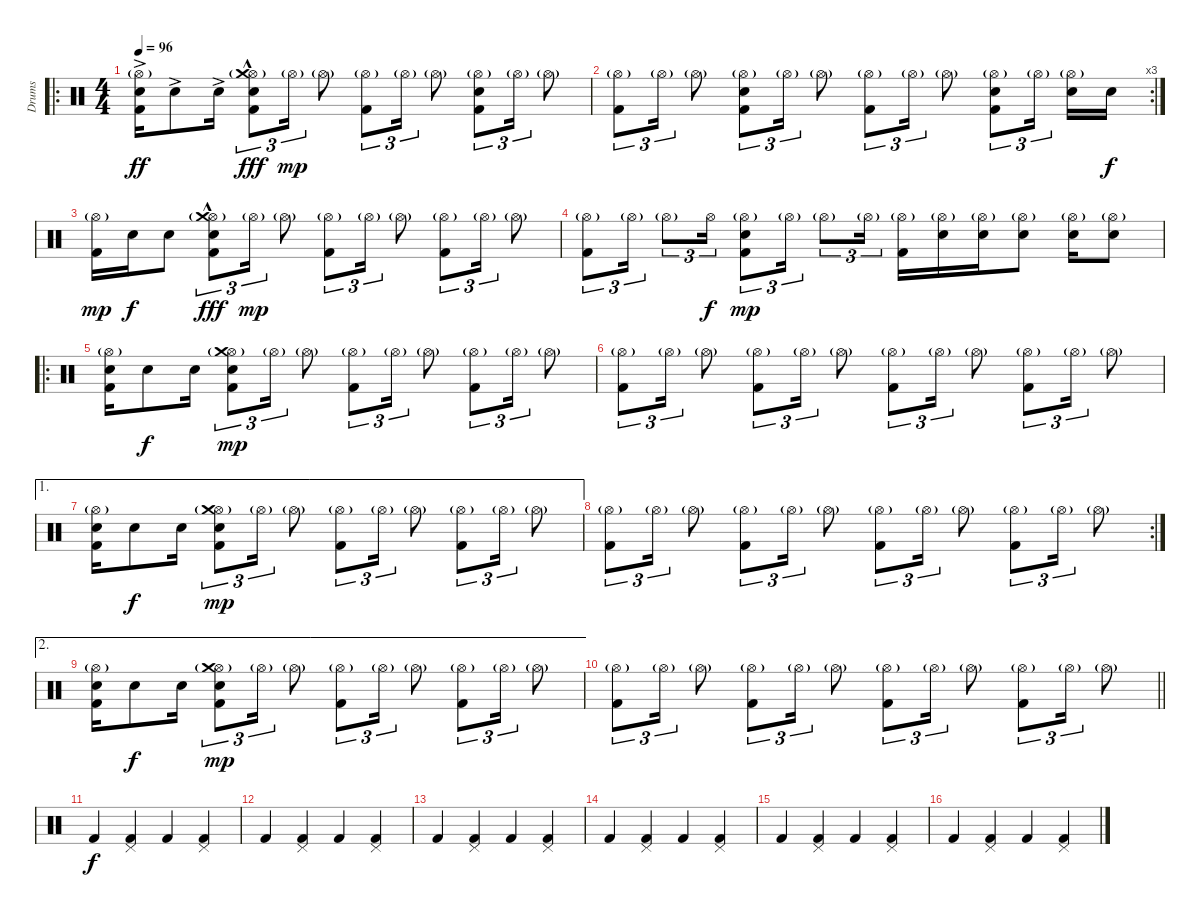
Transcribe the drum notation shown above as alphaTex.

\track ("Drums" "Drums") {instrument percussion}
\staff {score}
\articulation defaults
\ro
\ts (4 4)
\tempo 96
\clef neutral
\ks c
("Hi-Hat (open)"{g} "Electric Snare (hit)"{ac} "Kick (hit) 2").16{dy ff} "Electric Snare (hit)"{ac}.8 "Electric Snare (hit)"{ac}.16 ("Hi-Hat (open)"{g} "Crash medium (hit)"{hac} "Electric Snare (hit)"{hac} "Kick (hit) 2").8{tu (3 2) dy fff} "Hi-Hat (open)"{g}.16{tu (3 2) dy mp} "Hi-Hat (open)"{g}.8 ("Hi-Hat (open)"{g} "Kick (hit) 2").8{tu (3 2)} "Hi-Hat (open)"{g}.16{tu (3 2)} "Hi-Hat (open)"{g}.8 ("Hi-Hat (open)"{g} "Electric Snare (hit)" "Kick (hit) 2").8{tu (3 2)} "Hi-Hat (open)"{g}.16{tu (3 2)} "Hi-Hat (open)"{g}.8 |
\rc 3
("Hi-Hat (open)"{g} "Kick (hit) 2").8{tu (3 2)} "Hi-Hat (open)"{g}.16{tu (3 2)} "Hi-Hat (open)"{g}.8 ("Hi-Hat (open)"{g} "Electric Snare (hit)" "Kick (hit) 2").8{tu (3 2)} "Hi-Hat (open)"{g}.16{tu (3 2)} "Hi-Hat (open)"{g}.8 ("Hi-Hat (open)"{g} "Kick (hit) 2").8{tu (3 2)} "Hi-Hat (open)"{g}.16{tu (3 2)} "Hi-Hat (open)"{g}.8 ("Hi-Hat (open)"{g} "Electric Snare (hit)" "Kick (hit) 2").8{tu (3 2)} "Hi-Hat (open)"{g}.16{tu (3 2) beam splitsecondary} ("Hi-Hat (open)"{g} "Electric Snare (hit)").16 "Electric Snare (hit)".16{dy f} |
("Hi-Hat (open)"{g} "Kick (hit) 2").16{dy mp} "Electric Snare (hit)".16{dy f} "Electric Snare (hit)".8 ("Hi-Hat (open)"{g} "Crash medium (hit)"{hac} "Electric Snare (hit)"{hac} "Kick (hit) 2").8{tu (3 2) dy fff} "Hi-Hat (open)"{g}.16{tu (3 2) dy mp} "Hi-Hat (open)"{g}.8 ("Hi-Hat (open)"{g} "Kick (hit) 2").8{tu (3 2)} "Hi-Hat (open)"{g}.16{tu (3 2)} "Hi-Hat (open)"{g}.8 ("Hi-Hat (open)"{g} "Kick (hit) 2").8{tu (3 2)} "Hi-Hat (open)"{g}.16{tu (3 2)} "Hi-Hat (open)"{g}.8 |
("Hi-Hat (open)"{g} "Kick (hit) 2").8{tu (3 2)} "Hi-Hat (open)"{g}.16{tu (3 2)} "Hi-Hat (open)"{g}.8{tu (3 2)} "Hi-Hat (open)".16{tu (3 2) dy f} ("Hi-Hat (open)"{g} "Electric Snare (hit)" "Kick (hit) 2").8{tu (3 2) dy mp} "Hi-Hat (open)"{g}.16{tu (3 2)} "Hi-Hat (open)"{g}.8{tu (3 2)} "Hi-Hat (open)"{g}.16{tu (3 2)} ("Hi-Hat (open)"{g} "Kick (hit) 2").16 ("Hi-Hat (open)"{g} "Electric Snare (hit)").16 ("Hi-Hat (open)"{g} "Electric Snare (hit)").16 ("Hi-Hat (open)"{g} "Electric Snare (hit)").8 ("Hi-Hat (open)"{g} "Electric Snare (hit)").16 ("Hi-Hat (open)"{g} "Electric Snare (hit)").8 |
\ro
("Hi-Hat (open)"{g} "Electric Snare (hit)" "Kick (hit) 2").16 "Electric Snare (hit)".8{dy f} "Electric Snare (hit)".16 ("Hi-Hat (open)"{g} "Crash medium (hit)" "Electric Snare (hit)" "Kick (hit) 2").8{tu (3 2) dy mp} "Hi-Hat (open)"{g}.16{tu (3 2)} "Hi-Hat (open)"{g}.8 ("Hi-Hat (open)"{g} "Kick (hit) 2").8{tu (3 2)} "Hi-Hat (open)"{g}.16{tu (3 2)} "Hi-Hat (open)"{g}.8 ("Hi-Hat (open)"{g} "Kick (hit) 2").8{tu (3 2)} "Hi-Hat (open)"{g}.16{tu (3 2)} "Hi-Hat (open)"{g}.8 |
("Hi-Hat (open)"{g} "Kick (hit) 2").8{tu (3 2)} "Hi-Hat (open)"{g}.16{tu (3 2)} "Hi-Hat (open)"{g}.8 ("Hi-Hat (open)"{g} "Kick (hit) 2").8{tu (3 2)} "Hi-Hat (open)"{g}.16{tu (3 2)} "Hi-Hat (open)"{g}.8 ("Hi-Hat (open)"{g} "Kick (hit) 2").8{tu (3 2)} "Hi-Hat (open)"{g}.16{tu (3 2)} "Hi-Hat (open)"{g}.8 ("Hi-Hat (open)"{g} "Kick (hit) 2").8{tu (3 2)} "Hi-Hat (open)"{g}.16{tu (3 2)} "Hi-Hat (open)"{g}.8 |
\ae 1
("Hi-Hat (open)"{g} "Electric Snare (hit)" "Kick (hit) 2").16 "Electric Snare (hit)".8{dy f} "Electric Snare (hit)".16 ("Hi-Hat (open)"{g} "Crash medium (hit)" "Electric Snare (hit)" "Kick (hit) 2").8{tu (3 2) dy mp} "Hi-Hat (open)"{g}.16{tu (3 2)} "Hi-Hat (open)"{g}.8 ("Hi-Hat (open)"{g} "Kick (hit) 2").8{tu (3 2)} "Hi-Hat (open)"{g}.16{tu (3 2)} "Hi-Hat (open)"{g}.8 ("Hi-Hat (open)"{g} "Kick (hit) 2").8{tu (3 2)} "Hi-Hat (open)"{g}.16{tu (3 2)} "Hi-Hat (open)"{g}.8 |
\rc 2
("Hi-Hat (open)"{g} "Kick (hit) 2").8{tu (3 2)} "Hi-Hat (open)"{g}.16{tu (3 2)} "Hi-Hat (open)"{g}.8 ("Hi-Hat (open)"{g} "Kick (hit) 2").8{tu (3 2)} "Hi-Hat (open)"{g}.16{tu (3 2)} "Hi-Hat (open)"{g}.8 ("Hi-Hat (open)"{g} "Kick (hit) 2").8{tu (3 2)} "Hi-Hat (open)"{g}.16{tu (3 2)} "Hi-Hat (open)"{g}.8 ("Hi-Hat (open)"{g} "Kick (hit) 2").8{tu (3 2)} "Hi-Hat (open)"{g}.16{tu (3 2)} "Hi-Hat (open)"{g}.8 |
\ae 2
("Hi-Hat (open)"{g} "Electric Snare (hit)" "Kick (hit) 2").16 "Electric Snare (hit)".8{dy f} "Electric Snare (hit)".16 ("Hi-Hat (open)"{g} "Crash medium (hit)" "Electric Snare (hit)" "Kick (hit) 2").8{tu (3 2) dy mp} "Hi-Hat (open)"{g}.16{tu (3 2)} "Hi-Hat (open)"{g}.8 ("Hi-Hat (open)"{g} "Kick (hit) 2").8{tu (3 2)} "Hi-Hat (open)"{g}.16{tu (3 2)} "Hi-Hat (open)"{g}.8 ("Hi-Hat (open)"{g} "Kick (hit) 2").8{tu (3 2)} "Hi-Hat (open)"{g}.16{tu (3 2)} "Hi-Hat (open)"{g}.8 |
\barLineRight lightlight
("Hi-Hat (open)"{g} "Kick (hit) 2").8{tu (3 2)} "Hi-Hat (open)"{g}.16{tu (3 2)} "Hi-Hat (open)"{g}.8 ("Hi-Hat (open)"{g} "Kick (hit) 2").8{tu (3 2)} "Hi-Hat (open)"{g}.16{tu (3 2)} "Hi-Hat (open)"{g}.8 ("Hi-Hat (open)"{g} "Kick (hit) 2").8{tu (3 2)} "Hi-Hat (open)"{g}.16{tu (3 2)} "Hi-Hat (open)"{g}.8 ("Hi-Hat (open)"{g} "Kick (hit) 2").8{tu (3 2)} "Hi-Hat (open)"{g}.16{tu (3 2)} "Hi-Hat (open)"{g}.8 |
"Kick (hit) 2".4{dy f} ("Pedal Hi-Hat (hit)" "Kick (hit) 2").4 "Kick (hit) 2".4 ("Pedal Hi-Hat (hit)" "Kick (hit) 2").4 |
"Kick (hit) 2".4 ("Pedal Hi-Hat (hit)" "Kick (hit) 2").4 "Kick (hit) 2".4 ("Pedal Hi-Hat (hit)" "Kick (hit) 2").4 |
"Kick (hit) 2".4 ("Pedal Hi-Hat (hit)" "Kick (hit) 2").4 "Kick (hit) 2".4 ("Pedal Hi-Hat (hit)" "Kick (hit) 2").4 |
"Kick (hit) 2".4 ("Pedal Hi-Hat (hit)" "Kick (hit) 2").4 "Kick (hit) 2".4 ("Pedal Hi-Hat (hit)" "Kick (hit) 2").4 |
"Kick (hit) 2".4 ("Pedal Hi-Hat (hit)" "Kick (hit) 2").4 "Kick (hit) 2".4 ("Pedal Hi-Hat (hit)" "Kick (hit) 2").4 |
"Kick (hit) 2".4 ("Pedal Hi-Hat (hit)" "Kick (hit) 2").4 "Kick (hit) 2".4 ("Pedal Hi-Hat (hit)" "Kick (hit) 2").4
